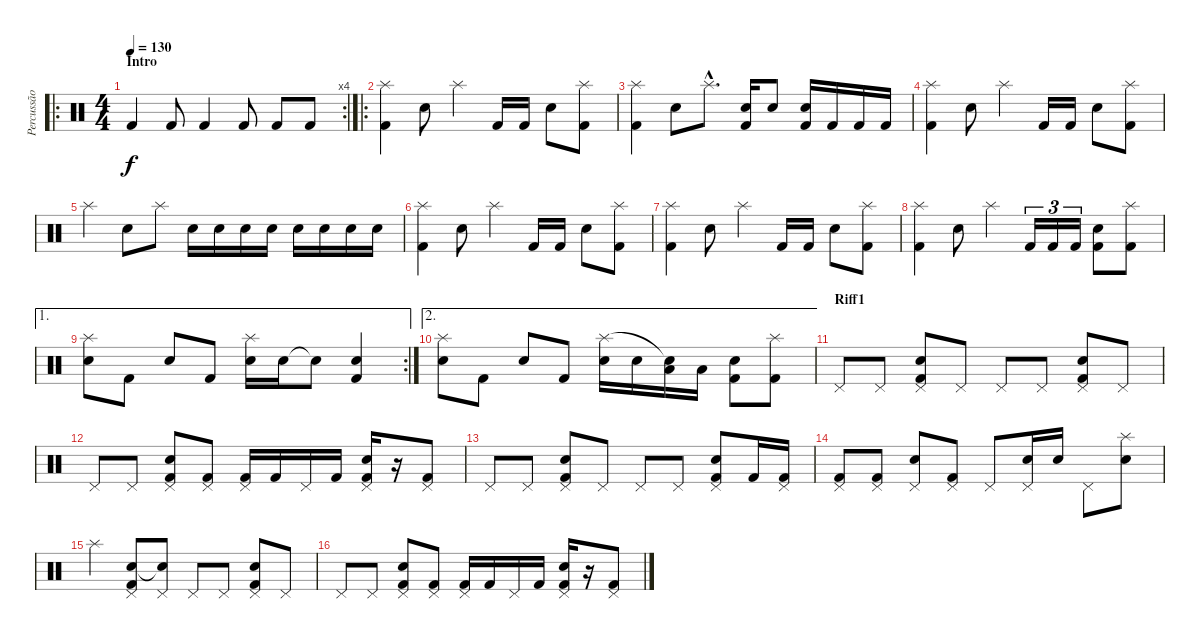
\track ("Percussão" "Percussão") {instrument percussion}
\staff {score}
\articulation defaults
\ro
\rc 4
\ts (4 4)
\section ("" "Intro")
\tempo 130
\clef neutral
\ks c "Kick (hit) 2".4{dy f volume 2} "Kick (hit) 2".8 "Kick (hit) 2".4 "Kick (hit) 2".8 "Kick (hit) 2".8 "Kick (hit) 2".8
|
\ro
("Kick (hit) 2" "Splash (hit)").4{volume 13} "Snare (hit) 2".8 "Splash (hit)".4 "Kick (hit) 2".16 "Kick (hit) 2".16 "Snare (hit) 2".8 ("Kick (hit) 2" "Splash (hit)").8 |
("Kick (hit) 2" "Splash (hit)").4 "Snare (hit) 2".8 "Splash (hit)"{hac}.8{d} ("Kick (hit) 2" "Snare (hit) 2").16 "Snare (hit) 2".8 ("Kick (hit) 2" "Snare (hit) 2").16 "Kick (hit) 2".16 "Kick (hit) 2".16 "Kick (hit) 2".16 |
("Kick (hit) 2" "Splash (hit)").4 "Snare (hit) 2".8 "Splash (hit)".4 "Kick (hit) 2".16 "Kick (hit) 2".16 "Snare (hit) 2".8 ("Kick (hit) 2" "Splash (hit)").8 |
"Splash (hit)".4 "Snare (hit) 2".8 "Splash (hit)".8 "Snare (hit) 2".16 "Snare (hit) 2".16 "Snare (hit) 2".16 "Snare (hit) 2".16 "Snare (hit) 2".16 "Snare (hit) 2".16 "Snare (hit) 2".16 "Snare (hit) 2".16 |
("Kick (hit) 2" "Splash (hit)").4 "Snare (hit) 2".8 "Splash (hit)".4 "Kick (hit) 2".16 "Kick (hit) 2".16 "Snare (hit) 2".8 ("Kick (hit) 2" "Splash (hit)").8 |
("Kick (hit) 2" "Splash (hit)").4 "Snare (hit) 2".8 "Splash (hit)".4 "Kick (hit) 2".16 "Kick (hit) 2".16 "Snare (hit) 2".8 ("Kick (hit) 2" "Splash (hit)").8 |
("Kick (hit) 2" "Splash (hit)").4 "Snare (hit) 2".8 "Splash (hit)".4 "Kick (hit) 2".16{tu (3 2)} "Kick (hit) 2".16{tu (3 2)} "Kick (hit) 2".16{tu (3 2)} ("Kick (hit) 2" "Snare (hit) 2").8 ("Kick (hit) 2" "Splash (hit)").8 |
\ae 1
\rc 2
("Splash (hit)" "Snare (hit) 2").8 "Kick (hit) 2".8 "Snare (hit) 2".8 "Kick (hit) 2".8 ("Snare (hit) 2" "Splash (hit)").16 "Snare (hit) 2".16 "Snare (hit)"{t}.8 ("Kick (hit) 2" "Snare (hit) 2").4 |
\ae 2
("Splash (hit)" "Snare (hit) 2").8 "Kick (hit) 2".8 "Snare (hit) 2".8 "Kick (hit) 2".8 ("Snare (hit) 2" "Splash (hit)").16 "Snare (hit) 2".16 ("Low Tom (hit)" "Snare (hit)"{t}).16 "Low Tom (hit)".16 ("Kick (hit) 2" "Snare (hit) 2").8 ("Splash (hit)" "Kick (hit) 2").8 |
\section ("" "Riff1")
"Pedal Hi-Hat (hit)".8 "Pedal Hi-Hat (hit)".8 ("Kick (hit) 2" "Snare (hit) 2" "Pedal Hi-Hat (hit)").8 "Pedal Hi-Hat (hit)".8 "Pedal Hi-Hat (hit)".8 "Pedal Hi-Hat (hit)".8 ("Kick (hit) 2" "Snare (hit) 2" "Pedal Hi-Hat (hit)").8 "Pedal Hi-Hat (hit)".8 |
"Pedal Hi-Hat (hit)".8 "Pedal Hi-Hat (hit)".8 ("Kick (hit) 2" "Snare (hit) 2" "Pedal Hi-Hat (hit)").8 ("Kick (hit) 2" "Pedal Hi-Hat (hit)").8 ("Kick (hit) 2" "Pedal Hi-Hat (hit)").16 "Kick (hit) 2".16 "Pedal Hi-Hat (hit)".16 "Kick (hit) 2".16 ("Kick (hit) 2" "Snare (hit) 2" "Pedal Hi-Hat (hit)").16 r.16 ("Kick (hit) 2" "Pedal Hi-Hat (hit)").8 |
"Pedal Hi-Hat (hit)".8 "Pedal Hi-Hat (hit)".8 ("Kick (hit) 2" "Snare (hit) 2" "Pedal Hi-Hat (hit)").8 "Pedal Hi-Hat (hit)".8 "Pedal Hi-Hat (hit)".8 "Pedal Hi-Hat (hit)".8 ("Kick (hit) 2" "Snare (hit) 2" "Pedal Hi-Hat (hit)").8 "Kick (hit) 2".16 ("Kick (hit) 2" "Pedal Hi-Hat (hit)").16 |
("Kick (hit) 2" "Pedal Hi-Hat (hit)").8 ("Kick (hit) 2" "Pedal Hi-Hat (hit)").8 ("Snare (hit) 2" "Pedal Hi-Hat (hit)").8 ("Kick (hit) 2" "Pedal Hi-Hat (hit)").8 "Pedal Hi-Hat (hit)".8 ("Snare (hit) 2" "Pedal Hi-Hat (hit)").16 "Snare (hit) 2".16 "Pedal Hi-Hat (hit)".8 ("Snare (hit) 2" "Splash (hit)").8 |
"Splash (hit)".4 ("Kick (hit) 2" "Snare (hit) 2" "Pedal Hi-Hat (hit)").8 ("Pedal Hi-Hat (hit)" "Snare (hit)"{t}).8 "Pedal Hi-Hat (hit)".8 "Pedal Hi-Hat (hit)".8 ("Kick (hit) 2" "Snare (hit) 2" "Pedal Hi-Hat (hit)").8 "Pedal Hi-Hat (hit)".8 |
"Pedal Hi-Hat (hit)".8 "Pedal Hi-Hat (hit)".8 ("Kick (hit) 2" "Snare (hit) 2" "Pedal Hi-Hat (hit)").8 ("Kick (hit) 2" "Pedal Hi-Hat (hit)").8 ("Kick (hit) 2" "Pedal Hi-Hat (hit)").16 "Kick (hit) 2".16 "Pedal Hi-Hat (hit)".16 "Kick (hit) 2".16 ("Kick (hit) 2" "Snare (hit) 2" "Pedal Hi-Hat (hit)").16 r.16 ("Kick (hit) 2" "Pedal Hi-Hat (hit)").8
